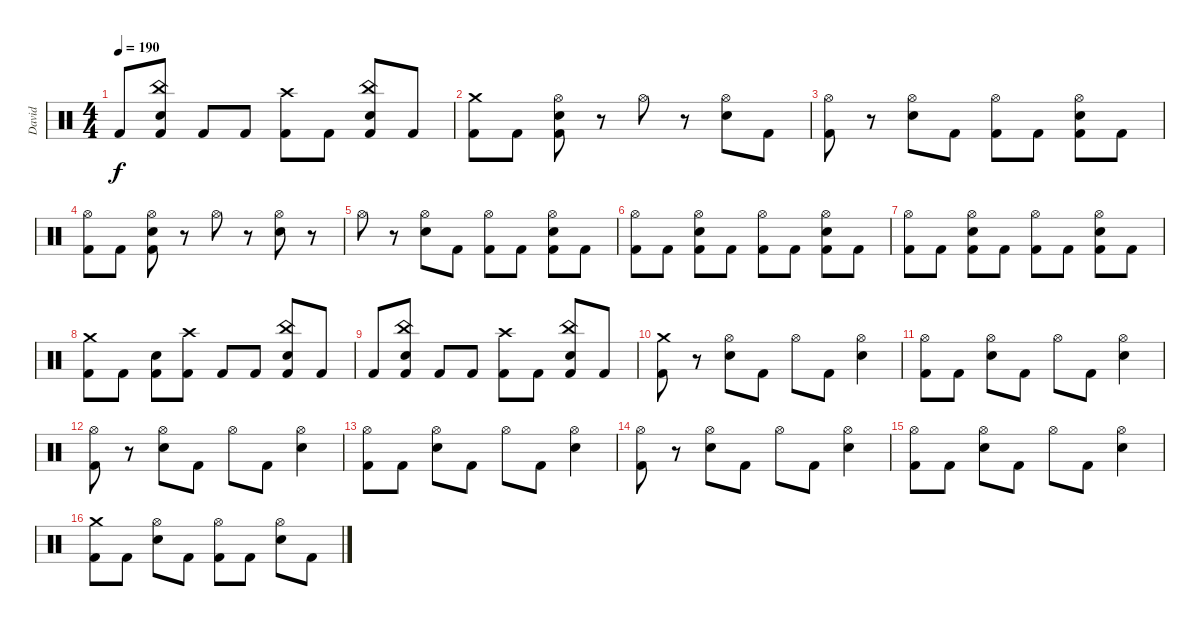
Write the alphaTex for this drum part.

\track ("David" "David") {instrument percussion}
\staff {score}
\articulation defaults
\ts (4 4)
\tempo 190
\clef neutral
\ks c "Kick (hit) 2".8{dy f}
("China (hit)" "Electric Snare (hit)" "Kick (hit) 2").8 "Kick (hit) 2".8 "Kick (hit) 2".8 ("Crash high (hit)" "Kick (hit) 2").8 "Kick (hit) 2".8 ("China (hit)" "Electric Snare (hit)" "Kick (hit) 2").8 "Kick (hit) 2".8 |
("Crash medium (hit)" "Kick (hit) 2").8 "Kick (hit) 2".8 ("Hi-Hat (open)" "Electric Snare (hit)" "Kick (hit) 2").8 r.8 "Hi-Hat (open)".8 r.8 ("Hi-Hat (open)" "Electric Snare (hit)").8 "Kick (hit) 2".8 |
("Hi-Hat (open)" "Kick (hit) 2").8 r.8 ("Hi-Hat (open)" "Electric Snare (hit)").8 "Kick (hit) 2".8 ("Hi-Hat (open)" "Kick (hit) 2").8 "Kick (hit) 2".8 ("Hi-Hat (open)" "Electric Snare (hit)" "Kick (hit) 2").8 "Kick (hit) 2".8 |
("Hi-Hat (open)" "Kick (hit) 2").8 "Kick (hit) 2".8 ("Hi-Hat (open)" "Electric Snare (hit)" "Kick (hit) 2").8 r.8 "Hi-Hat (open)".8 r.8 ("Hi-Hat (open)" "Electric Snare (hit)").8 r.8 |
"Hi-Hat (open)".8 r.8 ("Hi-Hat (open)" "Electric Snare (hit)").8 "Kick (hit) 2".8 ("Hi-Hat (open)" "Kick (hit) 2").8 "Kick (hit) 2".8 ("Hi-Hat (open)" "Electric Snare (hit)" "Kick (hit) 2").8 "Kick (hit) 2".8 |
("Hi-Hat (open)" "Kick (hit) 2").8 "Kick (hit) 2".8 ("Hi-Hat (open)" "Electric Snare (hit)" "Kick (hit) 2").8 "Kick (hit) 2".8 ("Hi-Hat (open)" "Kick (hit) 2").8 "Kick (hit) 2".8 ("Hi-Hat (open)" "Electric Snare (hit)" "Kick (hit) 2").8 "Kick (hit) 2".8 |
("Hi-Hat (open)" "Kick (hit) 2").8 "Kick (hit) 2".8 ("Hi-Hat (open)" "Electric Snare (hit)" "Kick (hit) 2").8 "Kick (hit) 2".8 ("Hi-Hat (open)" "Kick (hit) 2").8 "Kick (hit) 2".8 ("Hi-Hat (open)" "Electric Snare (hit)" "Kick (hit) 2").8 "Kick (hit) 2".8 |
("Crash medium (hit)" "Kick (hit) 2").8 "Kick (hit) 2".8 ("Electric Snare (hit)" "Kick (hit) 2").8 ("Crash high (hit)" "Kick (hit) 2").8 "Kick (hit) 2".8 "Kick (hit) 2".8 ("China (hit)" "Electric Snare (hit)" "Kick (hit) 2").8 "Kick (hit) 2".8 |
"Kick (hit) 2".8 ("China (hit)" "Electric Snare (hit)" "Kick (hit) 2").8 "Kick (hit) 2".8 "Kick (hit) 2".8 ("Crash high (hit)" "Kick (hit) 2").8 "Kick (hit) 2".8 ("China (hit)" "Electric Snare (hit)" "Kick (hit) 2").8 "Kick (hit) 2".8 |
("Crash medium (hit)" "Kick (hit) 2").8 r.8 ("Hi-Hat (open)" "Electric Snare (hit)").8 "Kick (hit) 2".8 "Hi-Hat (open)".8 "Kick (hit) 2".8 ("Hi-Hat (open)" "Electric Snare (hit)").4 |
("Hi-Hat (open)" "Kick (hit) 2").8 "Kick (hit) 2".8 ("Hi-Hat (open)" "Electric Snare (hit)").8 "Kick (hit) 2".8 "Hi-Hat (open)".8 "Kick (hit) 2".8 ("Hi-Hat (open)" "Electric Snare (hit)").4 |
("Hi-Hat (open)" "Kick (hit) 2").8 r.8 ("Hi-Hat (open)" "Electric Snare (hit)").8 "Kick (hit) 2".8 "Hi-Hat (open)".8 "Kick (hit) 2".8 ("Hi-Hat (open)" "Electric Snare (hit)").4 |
("Hi-Hat (open)" "Kick (hit) 2").8 "Kick (hit) 2".8 ("Hi-Hat (open)" "Electric Snare (hit)").8 "Kick (hit) 2".8 "Hi-Hat (open)".8 "Kick (hit) 2".8 ("Hi-Hat (open)" "Electric Snare (hit)").4 |
("Hi-Hat (open)" "Kick (hit) 2").8 r.8 ("Hi-Hat (open)" "Electric Snare (hit)").8 "Kick (hit) 2".8 "Hi-Hat (open)".8 "Kick (hit) 2".8 ("Hi-Hat (open)" "Electric Snare (hit)").4 |
("Hi-Hat (open)" "Kick (hit) 2").8 "Kick (hit) 2".8 ("Hi-Hat (open)" "Electric Snare (hit)").8 "Kick (hit) 2".8 "Hi-Hat (open)".8 "Kick (hit) 2".8 ("Hi-Hat (open)" "Electric Snare (hit)").4 |
("Crash medium (hit)" "Kick (hit) 2").8 "Kick (hit) 2".8 ("Hi-Hat (open)" "Electric Snare (hit)").8 "Kick (hit) 2".8 ("Hi-Hat (open)" "Kick (hit) 2").8 "Kick (hit) 2".8 ("Hi-Hat (open)" "Electric Snare (hit)").8 "Kick (hit) 2".8
